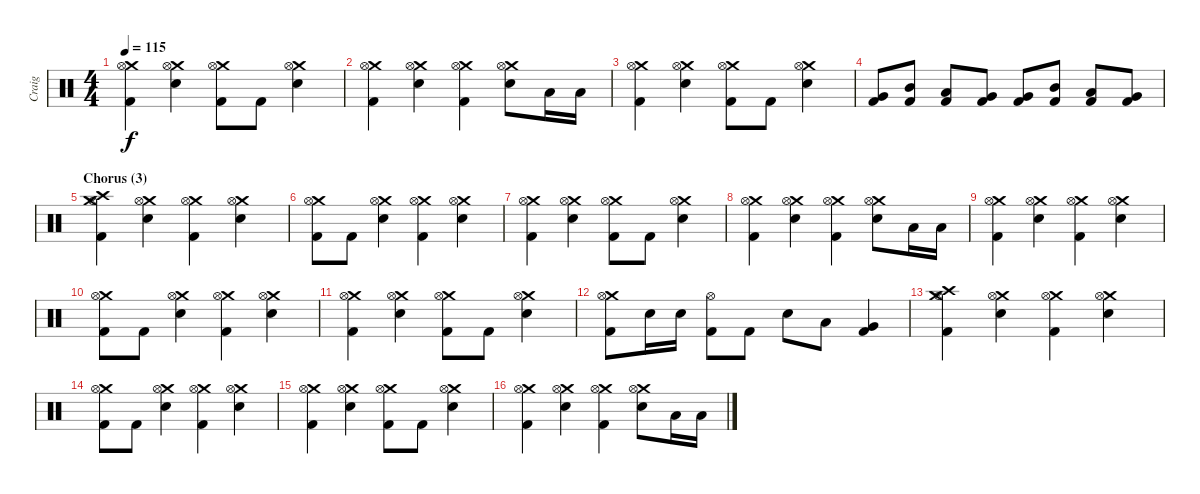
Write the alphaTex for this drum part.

\track ("Craig" "Craig") {instrument percussion}
\staff {score}
\articulation defaults
\ts (4 4)
\tempo 115
\clef neutral
\ks c
("Crash medium (hit)" "Hi-Hat (open)" "Kick (hit) 2").4{dy f} ("Crash medium (hit)" "Hi-Hat (open)" "Electric Snare (hit)").4 ("Crash medium (hit)" "Hi-Hat (open)" "Kick (hit) 2").8 "Kick (hit) 2".8 ("Crash medium (hit)" "Hi-Hat (open)" "Electric Snare (hit)").4 |
("Crash medium (hit)" "Hi-Hat (open)" "Kick (hit) 2").4 ("Crash medium (hit)" "Hi-Hat (open)" "Electric Snare (hit)").4 ("Crash medium (hit)" "Hi-Hat (open)" "Kick (hit) 2").4 ("Crash medium (hit)" "Hi-Hat (open)" "Electric Snare (hit)").8 "Low Floor Tom (hit)".16 "Low Floor Tom (hit)".16 |
("Crash medium (hit)" "Hi-Hat (open)" "Kick (hit) 2").4 ("Crash medium (hit)" "Hi-Hat (open)" "Electric Snare (hit)").4 ("Crash medium (hit)" "Hi-Hat (open)" "Kick (hit) 2").8 "Kick (hit) 2".8 ("Crash medium (hit)" "Hi-Hat (open)" "Electric Snare (hit)").4 |
("Very Low Tom (hit)" "Kick (hit) 2").8 ("Mid Tom (hit)" "Kick (hit) 2").8 ("Low Tom (hit)" "Kick (hit) 2").8 ("Very Low Tom (hit)" "Kick (hit) 2").8 ("Very Low Tom (hit)" "Kick (hit) 2").8 ("Mid Tom (hit)" "Kick (hit) 2").8 ("Low Tom (hit)" "Kick (hit) 2").8 ("Very Low Tom (hit)" "Kick (hit) 2").8 |
\section ("" "Chorus (3)")
("Crash high (hit)" "Crash medium (hit)" "Hi-Hat (open)" "Kick (hit) 2").4 ("Crash medium (hit)" "Hi-Hat (open)" "Electric Snare (hit)").4 ("Crash medium (hit)" "Hi-Hat (open)" "Kick (hit) 2").4 ("Crash medium (hit)" "Hi-Hat (open)" "Electric Snare (hit)").4 |
("Crash medium (hit)" "Hi-Hat (open)" "Kick (hit) 2").8 "Kick (hit) 2".8 ("Crash medium (hit)" "Hi-Hat (open)" "Electric Snare (hit)").4 ("Crash medium (hit)" "Hi-Hat (open)" "Kick (hit) 2").4 ("Crash medium (hit)" "Hi-Hat (open)" "Electric Snare (hit)").4 |
("Crash medium (hit)" "Hi-Hat (open)" "Kick (hit) 2").4 ("Crash medium (hit)" "Hi-Hat (open)" "Electric Snare (hit)").4 ("Crash medium (hit)" "Hi-Hat (open)" "Kick (hit) 2").8 "Kick (hit) 2".8 ("Crash medium (hit)" "Hi-Hat (open)" "Electric Snare (hit)").4 |
("Crash medium (hit)" "Hi-Hat (open)" "Kick (hit) 2").4 ("Crash medium (hit)" "Hi-Hat (open)" "Electric Snare (hit)").4 ("Crash medium (hit)" "Hi-Hat (open)" "Kick (hit) 2").4 ("Crash medium (hit)" "Hi-Hat (open)" "Electric Snare (hit)").8 "Low Floor Tom (hit)".16 "Low Floor Tom (hit)".16 |
("Crash medium (hit)" "Hi-Hat (open)" "Kick (hit) 2").4 ("Crash medium (hit)" "Hi-Hat (open)" "Electric Snare (hit)").4 ("Crash medium (hit)" "Hi-Hat (open)" "Kick (hit) 2").4 ("Crash medium (hit)" "Hi-Hat (open)" "Electric Snare (hit)").4 |
("Crash medium (hit)" "Hi-Hat (open)" "Kick (hit) 2").8 "Kick (hit) 2".8 ("Crash medium (hit)" "Hi-Hat (open)" "Electric Snare (hit)").4 ("Crash medium (hit)" "Hi-Hat (open)" "Kick (hit) 2").4 ("Crash medium (hit)" "Hi-Hat (open)" "Electric Snare (hit)").4 |
("Crash medium (hit)" "Hi-Hat (open)" "Kick (hit) 2").4 ("Crash medium (hit)" "Hi-Hat (open)" "Electric Snare (hit)").4 ("Crash medium (hit)" "Hi-Hat (open)" "Kick (hit) 2").8 "Kick (hit) 2".8 ("Crash medium (hit)" "Hi-Hat (open)" "Electric Snare (hit)").4 |
("Crash medium (hit)" "Hi-Hat (open)" "Kick (hit) 2").8 "Electric Snare (hit)".16 "Electric Snare (hit)".16 ("Hi-Hat (open)" "Kick (hit) 2").8 "Kick (hit) 2".8 "Electric Snare (hit)".8 "Low Tom (hit)".8 ("Very Low Tom (hit)" "Kick (hit) 2").4 |
("Crash high (hit)" "Crash medium (hit)" "Hi-Hat (open)" "Kick (hit) 2").4 ("Crash medium (hit)" "Hi-Hat (open)" "Electric Snare (hit)").4 ("Crash medium (hit)" "Hi-Hat (open)" "Kick (hit) 2").4 ("Crash medium (hit)" "Hi-Hat (open)" "Electric Snare (hit)").4 |
("Crash medium (hit)" "Hi-Hat (open)" "Kick (hit) 2").8 "Kick (hit) 2".8 ("Crash medium (hit)" "Hi-Hat (open)" "Electric Snare (hit)").4 ("Crash medium (hit)" "Hi-Hat (open)" "Kick (hit) 2").4 ("Crash medium (hit)" "Hi-Hat (open)" "Electric Snare (hit)").4 |
("Crash medium (hit)" "Hi-Hat (open)" "Kick (hit) 2").4 ("Crash medium (hit)" "Hi-Hat (open)" "Electric Snare (hit)").4 ("Crash medium (hit)" "Hi-Hat (open)" "Kick (hit) 2").8 "Kick (hit) 2".8 ("Crash medium (hit)" "Hi-Hat (open)" "Electric Snare (hit)").4 |
("Crash medium (hit)" "Hi-Hat (open)" "Kick (hit) 2").4 ("Crash medium (hit)" "Hi-Hat (open)" "Electric Snare (hit)").4 ("Crash medium (hit)" "Hi-Hat (open)" "Kick (hit) 2").4 ("Crash medium (hit)" "Hi-Hat (open)" "Electric Snare (hit)").8 "Low Floor Tom (hit)".16 "Low Floor Tom (hit)".16
